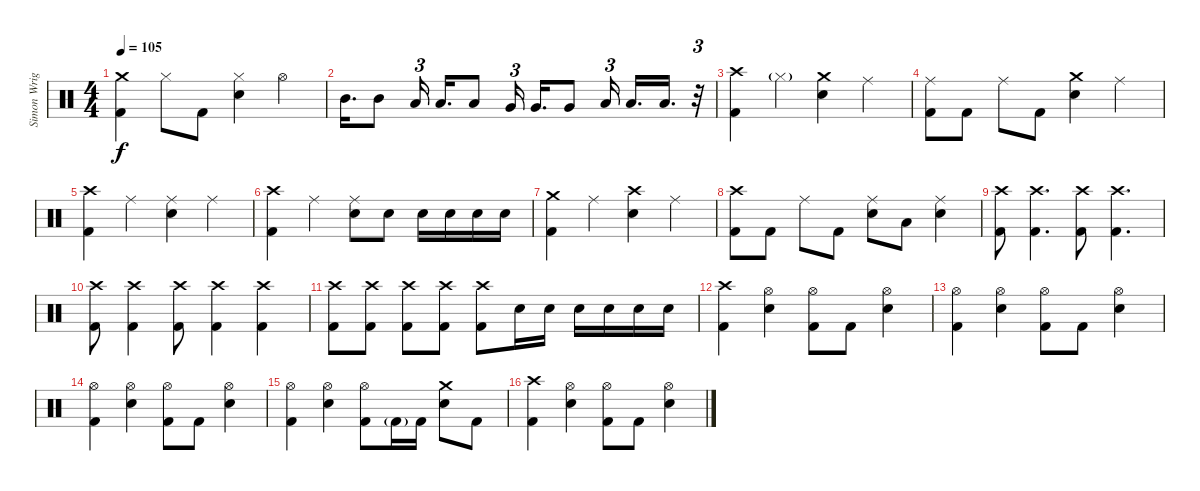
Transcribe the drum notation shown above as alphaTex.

\track ("Simon Wright" "Simon Wrig") {instrument percussion}
\staff {score}
\articulation defaults
\ts (4 4)
\tempo 105
\clef neutral
\ks c
("Crash medium (hit)" "Kick (hit) 2").4{dy f} "Hi-Hat (closed)".8 "Kick (hit) 2".8 ("Hi-Hat (closed)" "Snare (hit) 2").4 "Hi-Hat (open)".4 |
"Mid Tom (hit)".16{d} "Mid Tom (hit)".8 "Low Tom (hit)".16{tu (3 2)} "Low Tom (hit)".16{d} "Low Tom (hit)".8 "Very Low Tom (hit)".16{tu (3 2)} "Very Low Tom (hit)".16{d} "Very Low Tom (hit)".8 "Low Floor Tom (hit)".16{tu (3 2)} "Low Floor Tom (hit)".16{d} "Low Floor Tom (hit)".16{d} r.32{tu (3 2)} |
("Crash high (hit)" "Kick (hit) 2").4 "Hi-Hat (closed)"{g}.4 ("Crash medium (hit)" "Snare (hit) 2").4 "Ride (middle)".4 |
("Ride (middle)" "Kick (hit) 2").8 "Kick (hit) 2".8 "Ride (middle)".8 "Kick (hit) 2".8 ("Crash medium (hit)" "Snare (hit) 2").4 "Ride (middle)".4 |
("Crash high (hit)" "Kick (hit) 2").4 "Ride (middle)".4 ("Ride (middle)" "Snare (hit) 2").4 "Ride (middle)".4 |
("Crash high (hit)" "Kick (hit) 2").4 "Ride (middle)".4 ("Ride (middle)" "Snare (hit) 2").8 "Snare (hit) 2".8 "Snare (hit) 2".16 "Snare (hit) 2".16 "Snare (hit) 2".16 "Snare (hit) 2".16 |
("Crash medium (hit)" "Kick (hit) 2").4 "Ride (middle)".4 ("Crash high (hit)" "Snare (hit) 2").4 "Ride (middle)".4 |
("Crash high (hit)" "Kick (hit) 2").8 "Kick (hit) 2".8 "Ride (middle)".8 "Kick (hit) 2".8 ("Ride (middle)" "Snare (hit) 2").8 "Low Tom (hit)".8 ("Ride (middle)" "Snare (hit) 2").4 |
("Crash high (hit)" "Kick (hit) 2").8 ("Crash high (hit)" "Kick (hit) 2").4{d} ("Crash high (hit)" "Kick (hit) 2").8 ("Crash high (hit)" "Kick (hit) 2").4{d} |
("Crash high (hit)" "Kick (hit) 2").8 ("Crash high (hit)" "Kick (hit) 2").4 ("Crash high (hit)" "Kick (hit) 2").8 ("Crash high (hit)" "Kick (hit) 2").4 ("Crash high (hit)" "Kick (hit) 2").4 |
("Crash high (hit)" "Kick (hit) 2").8 ("Crash high (hit)" "Kick (hit) 2").8 ("Crash high (hit)" "Kick (hit) 2").8 ("Crash high (hit)" "Kick (hit) 2").8 ("Crash high (hit)" "Kick (hit) 2").8 "Snare (hit) 2".16 "Snare (hit) 2".16 "Snare (hit) 2".16 "Snare (hit) 2".16 "Snare (hit) 2".16 "Snare (hit) 2".16 |
("Crash high (hit)" "Kick (hit) 2").4 ("Hi-Hat (open)" "Snare (hit) 2").4 ("Hi-Hat (open)" "Kick (hit) 2").8 "Kick (hit) 2".8 ("Hi-Hat (open)" "Snare (hit) 2").4 |
("Hi-Hat (open)" "Kick (hit) 2").4 ("Hi-Hat (open)" "Snare (hit) 2").4 ("Hi-Hat (open)" "Kick (hit) 2").8 "Kick (hit) 2".8 ("Hi-Hat (open)" "Snare (hit) 2").4 |
("Hi-Hat (open)" "Kick (hit) 2").4 ("Hi-Hat (open)" "Snare (hit) 2").4 ("Hi-Hat (open)" "Kick (hit) 2").8 "Kick (hit) 2".8 ("Hi-Hat (open)" "Snare (hit) 2").4 |
("Hi-Hat (open)" "Kick (hit) 2").4 ("Hi-Hat (open)" "Snare (hit) 2").4 ("Hi-Hat (open)" "Kick (hit) 2").8 "Kick (hit) 2"{g}.16 "Kick (hit) 2".16 ("Crash medium (hit)" "Snare (hit) 2").8 "Kick (hit) 2".8 |
("Crash high (hit)" "Kick (hit) 2").4 ("Hi-Hat (open)" "Snare (hit) 2").4 ("Hi-Hat (open)" "Kick (hit) 2").8 "Kick (hit) 2".8 ("Hi-Hat (open)" "Snare (hit) 2").4
